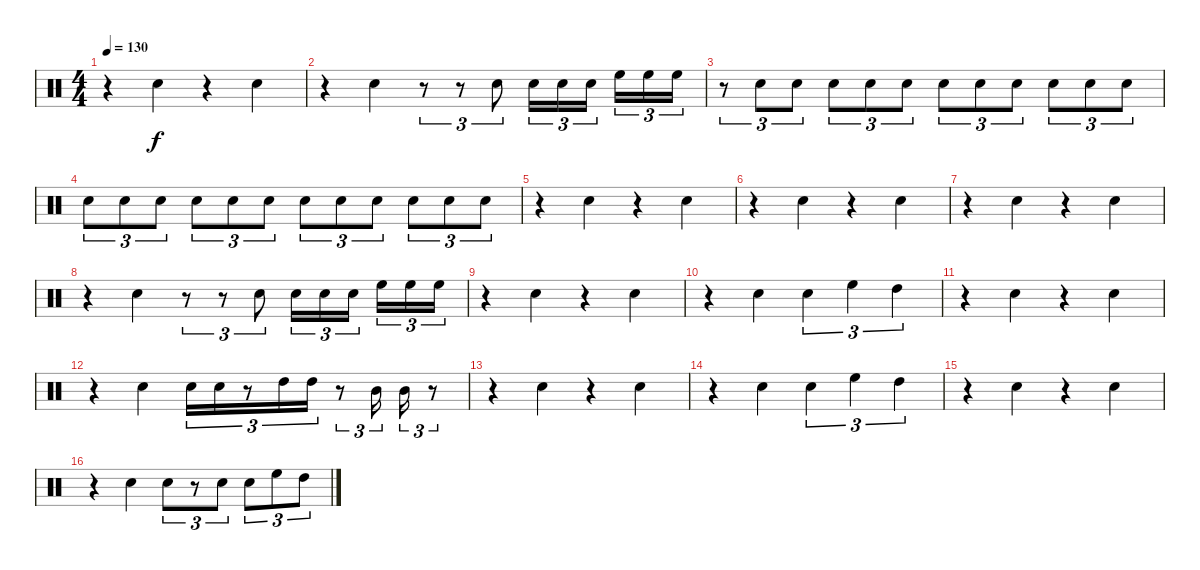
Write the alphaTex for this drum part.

\track "" {instrument percussion}
\staff {score}
\articulation defaults
\ts (4 4)
\tempo 130
\clef neutral
\ks c
r.4{dy f} "Electric Snare (hit)".4 r.4 "Electric Snare (hit)".4 |
r.4 "Electric Snare (hit)".4 r.8{tu (3 2)} r.8{tu (3 2)} "Electric Snare (hit)".8{tu (3 2)} "Electric Snare (hit)".16{tu (3 2)} "Electric Snare (hit)".16{tu (3 2)} "Electric Snare (hit)".16{tu (3 2)} "High Floor Tom (hit)".16{tu (3 2)} "High Floor Tom (hit)".16{tu (3 2)} "High Floor Tom (hit)".16{tu (3 2)} |
r.8{tu (3 2)} "Electric Snare (hit)".8{tu (3 2)} "Electric Snare (hit)".8{tu (3 2)} "Electric Snare (hit)".8{tu (3 2)} "Electric Snare (hit)".8{tu (3 2)} "Electric Snare (hit)".8{tu (3 2)} "Electric Snare (hit)".8{tu (3 2)} "Electric Snare (hit)".8{tu (3 2)} "Electric Snare (hit)".8{tu (3 2)} "Electric Snare (hit)".8{tu (3 2)} "Electric Snare (hit)".8{tu (3 2)} "Electric Snare (hit)".8{tu (3 2)} |
"Electric Snare (hit)".8{tu (3 2)} "Electric Snare (hit)".8{tu (3 2)} "Electric Snare (hit)".8{tu (3 2)} "Electric Snare (hit)".8{tu (3 2)} "Electric Snare (hit)".8{tu (3 2)} "Electric Snare (hit)".8{tu (3 2)} "Electric Snare (hit)".8{tu (3 2)} "Electric Snare (hit)".8{tu (3 2)} "Electric Snare (hit)".8{tu (3 2)} "Electric Snare (hit)".8{tu (3 2)} "Electric Snare (hit)".8{tu (3 2)} "Electric Snare (hit)".8{tu (3 2)} |
r.4 "Electric Snare (hit)".4 r.4 "Electric Snare (hit)".4 |
r.4 "Electric Snare (hit)".4 r.4 "Electric Snare (hit)".4 |
r.4 "Electric Snare (hit)".4 r.4 "Electric Snare (hit)".4 |
r.4 "Electric Snare (hit)".4 r.8{tu (3 2)} r.8{tu (3 2)} "Electric Snare (hit)".8{tu (3 2)} "Electric Snare (hit)".16{tu (3 2)} "Electric Snare (hit)".16{tu (3 2)} "Electric Snare (hit)".16{tu (3 2)} "High Floor Tom (hit)".16{tu (3 2)} "High Floor Tom (hit)".16{tu (3 2)} "High Floor Tom (hit)".16{tu (3 2)} |
r.4 "Electric Snare (hit)".4 r.4 "Electric Snare (hit)".4 |
r.4 "Electric Snare (hit)".4 "Electric Snare (hit)".4{tu (3 2)} "High Floor Tom (hit)".4{tu (3 2)} "High Tom (hit)".4{tu (3 2)} |
r.4 "Electric Snare (hit)".4 r.4 "Electric Snare (hit)".4 |
r.4 "Electric Snare (hit)".4 "Electric Snare (hit)".16{tu (3 2)} "Electric Snare (hit)".16{tu (3 2)} r.8{tu (3 2)} "High Tom (hit)".16{tu (3 2)} "High Tom (hit)".16{tu (3 2)} r.8{tu (3 2)} "Mid Tom (hit)".16{tu (3 2)} "Mid Tom (hit)".16{tu (3 2)} r.8{tu (3 2)} |
r.4 "Electric Snare (hit)".4 r.4 "Electric Snare (hit)".4 |
r.4 "Electric Snare (hit)".4 "Electric Snare (hit)".4{tu (3 2)} "High Floor Tom (hit)".4{tu (3 2)} "High Tom (hit)".4{tu (3 2)} |
r.4 "Electric Snare (hit)".4 r.4 "Electric Snare (hit)".4 |
r.4 "Electric Snare (hit)".4 "Electric Snare (hit)".8{tu (3 2)} r.8{tu (3 2)} "Electric Snare (hit)".8{tu (3 2)} "Electric Snare (hit)".8{tu (3 2)} "High Floor Tom (hit)".8{tu (3 2)} "High Tom (hit)".8{tu (3 2)}
